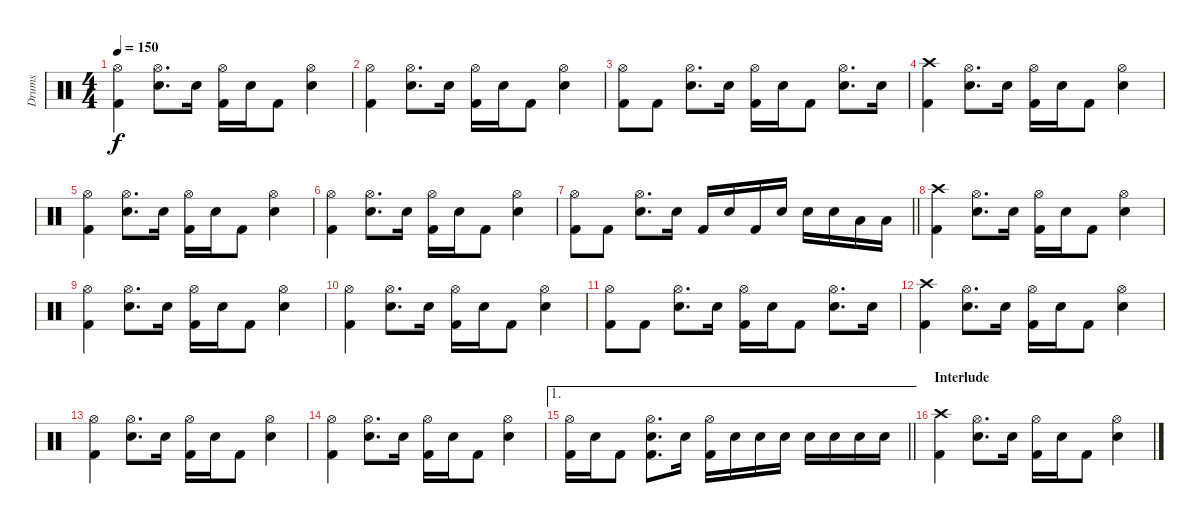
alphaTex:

\track ("Drums" "Drums") {instrument percussion}
\staff {score}
\articulation defaults
\ts (4 4)
\tempo 150
\clef neutral
\ks c
("Hi-Hat (open)" "Kick (hit) 2").4{dy f} ("Hi-Hat (open)" "Snare (hit) 2").8{d} "Snare (hit) 2".16 ("Hi-Hat (open)" "Kick (hit) 2").16 "Snare (hit) 2".16 "Kick (hit) 2".8 ("Hi-Hat (open)" "Snare (hit) 2").4 |
("Hi-Hat (open)" "Kick (hit) 2").4 ("Hi-Hat (open)" "Snare (hit) 2").8{d} "Snare (hit) 2".16 ("Hi-Hat (open)" "Kick (hit) 2").16 "Snare (hit) 2".16 "Kick (hit) 2".8 ("Hi-Hat (open)" "Snare (hit) 2").4 |
("Hi-Hat (open)" "Kick (hit) 2").8 "Kick (hit) 2".8 ("Hi-Hat (open)" "Snare (hit) 2").8{d} "Snare (hit) 2".16 ("Hi-Hat (open)" "Kick (hit) 2").16 "Snare (hit) 2".16 "Kick (hit) 2".8 ("Hi-Hat (open)" "Snare (hit) 2").8{d} "Snare (hit) 2".16 |
("Crash high (hit)" "Kick (hit) 2").4 ("Hi-Hat (open)" "Snare (hit) 2").8{d} "Snare (hit) 2".16 ("Hi-Hat (open)" "Kick (hit) 2").16 "Snare (hit) 2".16 "Kick (hit) 2".8 ("Hi-Hat (open)" "Snare (hit) 2").4 |
("Hi-Hat (open)" "Kick (hit) 2").4 ("Hi-Hat (open)" "Snare (hit) 2").8{d} "Snare (hit) 2".16 ("Hi-Hat (open)" "Kick (hit) 2").16 "Snare (hit) 2".16 "Kick (hit) 2".8 ("Hi-Hat (open)" "Snare (hit) 2").4 |
("Hi-Hat (open)" "Kick (hit) 2").4 ("Hi-Hat (open)" "Snare (hit) 2").8{d} "Snare (hit) 2".16 ("Hi-Hat (open)" "Kick (hit) 2").16 "Snare (hit) 2".16 "Kick (hit) 2".8 ("Hi-Hat (open)" "Snare (hit) 2").4 |
\barLineRight lightlight
("Hi-Hat (open)" "Kick (hit) 2").8 "Kick (hit) 2".8 ("Hi-Hat (open)" "Snare (hit) 2").8{d} "Snare (hit) 2".16 "Kick (hit) 2".16 "Snare (hit) 2".16 "Kick (hit) 2".16 "Snare (hit) 2".16 "Snare (hit) 2".16 "Snare (hit) 2".16 "Low Tom (hit)".16 "Low Tom (hit)".16 |
("Crash high (hit)" "Kick (hit) 2").4 ("Hi-Hat (open)" "Snare (hit) 2").8{d} "Snare (hit) 2".16 ("Hi-Hat (open)" "Kick (hit) 2").16 "Snare (hit) 2".16 "Kick (hit) 2".8 ("Hi-Hat (open)" "Snare (hit) 2").4 |
("Hi-Hat (open)" "Kick (hit) 2").4 ("Hi-Hat (open)" "Snare (hit) 2").8{d} "Snare (hit) 2".16 ("Hi-Hat (open)" "Kick (hit) 2").16 "Snare (hit) 2".16 "Kick (hit) 2".8 ("Hi-Hat (open)" "Snare (hit) 2").4 |
("Hi-Hat (open)" "Kick (hit) 2").4 ("Hi-Hat (open)" "Snare (hit) 2").8{d} "Snare (hit) 2".16 ("Hi-Hat (open)" "Kick (hit) 2").16 "Snare (hit) 2".16 "Kick (hit) 2".8 ("Hi-Hat (open)" "Snare (hit) 2").4 |
("Hi-Hat (open)" "Kick (hit) 2").8 "Kick (hit) 2".8 ("Hi-Hat (open)" "Snare (hit) 2").8{d} "Snare (hit) 2".16 ("Hi-Hat (open)" "Kick (hit) 2").16 "Snare (hit) 2".16 "Kick (hit) 2".8 ("Hi-Hat (open)" "Snare (hit) 2").8{d} "Snare (hit) 2".16 |
("Crash high (hit)" "Kick (hit) 2").4 ("Hi-Hat (open)" "Snare (hit) 2").8{d} "Snare (hit) 2".16 ("Hi-Hat (open)" "Kick (hit) 2").16 "Snare (hit) 2".16 "Kick (hit) 2".8 ("Hi-Hat (open)" "Snare (hit) 2").4 |
("Hi-Hat (open)" "Kick (hit) 2").4 ("Hi-Hat (open)" "Snare (hit) 2").8{d} "Snare (hit) 2".16 ("Hi-Hat (open)" "Kick (hit) 2").16 "Snare (hit) 2".16 "Kick (hit) 2".8 ("Hi-Hat (open)" "Snare (hit) 2").4 |
("Hi-Hat (open)" "Kick (hit) 2").4 ("Hi-Hat (open)" "Snare (hit) 2").8{d} "Snare (hit) 2".16 ("Hi-Hat (open)" "Kick (hit) 2").16 "Snare (hit) 2".16 "Kick (hit) 2".8 ("Hi-Hat (open)" "Snare (hit) 2").4 |
\ae 1
\barLineRight lightlight
("Hi-Hat (open)" "Kick (hit) 2").16 "Snare (hit) 2".16 "Kick (hit) 2".8 ("Hi-Hat (open)" "Snare (hit) 2" "Kick (hit) 2").8{d} "Snare (hit) 2".16 ("Hi-Hat (open)" "Kick (hit) 2").16 "Snare (hit) 2".16 "Snare (hit) 2".16 "Snare (hit) 2".16 "Snare (hit) 2".16 "Snare (hit) 2".16 "Snare (hit) 2".16 "Snare (hit) 2".16 |
\section ("" "Interlude")
("Crash high (hit)" "Kick (hit) 2").4 ("Hi-Hat (open)" "Snare (hit) 2").8{d} "Snare (hit) 2".16 ("Hi-Hat (open)" "Kick (hit) 2").16 "Snare (hit) 2".16 "Kick (hit) 2".8 ("Hi-Hat (open)" "Snare (hit) 2").4
